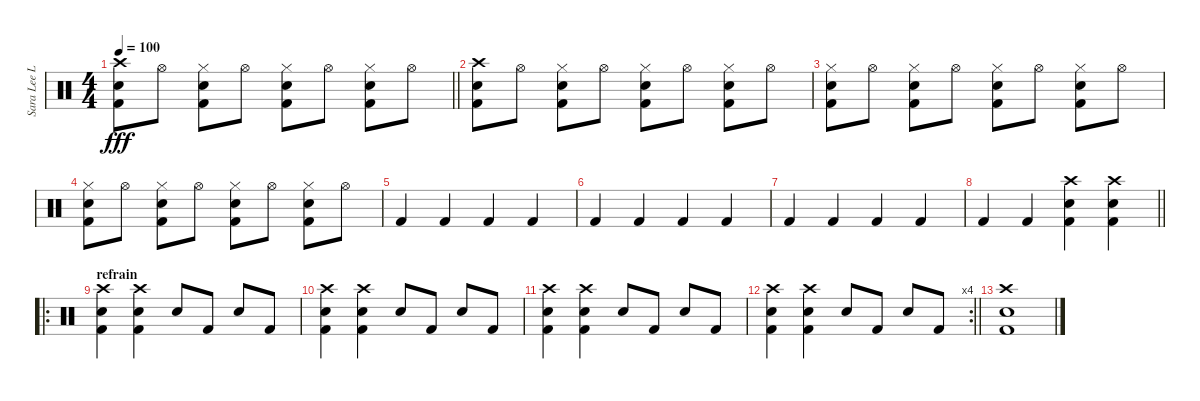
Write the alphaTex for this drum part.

\track ("Sara Lee Lucas (drums)" "Sara Lee L") {instrument percussion}
\staff {score}
\articulation defaults
\ts (4 4)
\tempo 100
\clef neutral
\barLineRight lightlight
\ks c
("Crash high (hit)" "Snare (hit) 2" "Kick (hit) 2").8{dy fff} "Hi-Hat (open)".8 ("Hi-Hat (closed)" "Snare (hit) 2" "Kick (hit) 2").8 "Hi-Hat (open)".8 ("Hi-Hat (closed)" "Snare (hit) 2" "Kick (hit) 2").8 "Hi-Hat (open)".8 ("Hi-Hat (closed)" "Snare (hit) 2" "Kick (hit) 2").8 "Hi-Hat (open)".8 |
("Crash high (hit)" "Snare (hit) 2" "Kick (hit) 2").8 "Hi-Hat (open)".8 ("Hi-Hat (closed)" "Snare (hit) 2" "Kick (hit) 2").8 "Hi-Hat (open)".8 ("Hi-Hat (closed)" "Snare (hit) 2" "Kick (hit) 2").8 "Hi-Hat (open)".8 ("Hi-Hat (closed)" "Snare (hit) 2" "Kick (hit) 2").8 "Hi-Hat (open)".8 |
("Hi-Hat (closed)" "Snare (hit) 2" "Kick (hit) 2").8 "Hi-Hat (open)".8 ("Hi-Hat (closed)" "Snare (hit) 2" "Kick (hit) 2").8 "Hi-Hat (open)".8 ("Hi-Hat (closed)" "Snare (hit) 2" "Kick (hit) 2").8 "Hi-Hat (open)".8 ("Hi-Hat (closed)" "Snare (hit) 2" "Kick (hit) 2").8 "Hi-Hat (open)".8 |
("Hi-Hat (closed)" "Snare (hit) 2" "Kick (hit) 2").8 "Hi-Hat (open)".8 ("Hi-Hat (closed)" "Snare (hit) 2" "Kick (hit) 2").8 "Hi-Hat (open)".8 ("Hi-Hat (closed)" "Snare (hit) 2" "Kick (hit) 2").8 "Hi-Hat (open)".8 ("Hi-Hat (closed)" "Snare (hit) 2" "Kick (hit) 2").8 "Hi-Hat (open)".8 |
"Kick (hit) 2".4 "Kick (hit) 2".4 "Kick (hit) 2".4 "Kick (hit) 2".4 |
"Kick (hit) 2".4 "Kick (hit) 2".4 "Kick (hit) 2".4 "Kick (hit) 2".4 |
"Kick (hit) 2".4 "Kick (hit) 2".4 "Kick (hit) 2".4 "Kick (hit) 2".4 |
\barLineRight lightlight "Kick (hit) 2".4 "Kick (hit) 2".4
("Crash high (hit)" "Snare (hit) 2" "Kick (hit) 2").4 ("Crash high (hit)" "Snare (hit) 2" "Kick (hit) 2").4 |
\ro
\section ("" "refrain")
("Crash high (hit)" "Snare (hit) 2" "Kick (hit) 2").4 ("Crash high (hit)" "Snare (hit) 2" "Kick (hit) 2").4 "Snare (hit) 2".8 "Kick (hit) 2".8 "Snare (hit) 2".8 "Kick (hit) 2".8 |
("Crash high (hit)" "Snare (hit) 2" "Kick (hit) 2").4 ("Crash high (hit)" "Snare (hit) 2" "Kick (hit) 2").4 "Snare (hit) 2".8 "Kick (hit) 2".8 "Snare (hit) 2".8 "Kick (hit) 2".8 |
("Crash high (hit)" "Snare (hit) 2" "Kick (hit) 2").4 ("Crash high (hit)" "Snare (hit) 2" "Kick (hit) 2").4 "Snare (hit) 2".8 "Kick (hit) 2".8 "Snare (hit) 2".8 "Kick (hit) 2".8 |
\rc 4
\barLineRight lightlight
("Crash high (hit)" "Snare (hit) 2" "Kick (hit) 2").4 ("Crash high (hit)" "Snare (hit) 2" "Kick (hit) 2").4 "Snare (hit) 2".8 "Kick (hit) 2".8 "Snare (hit) 2".8 "Kick (hit) 2".8 |
("Crash high (hit)" "Snare (hit) 2" "Kick (hit) 2").1
